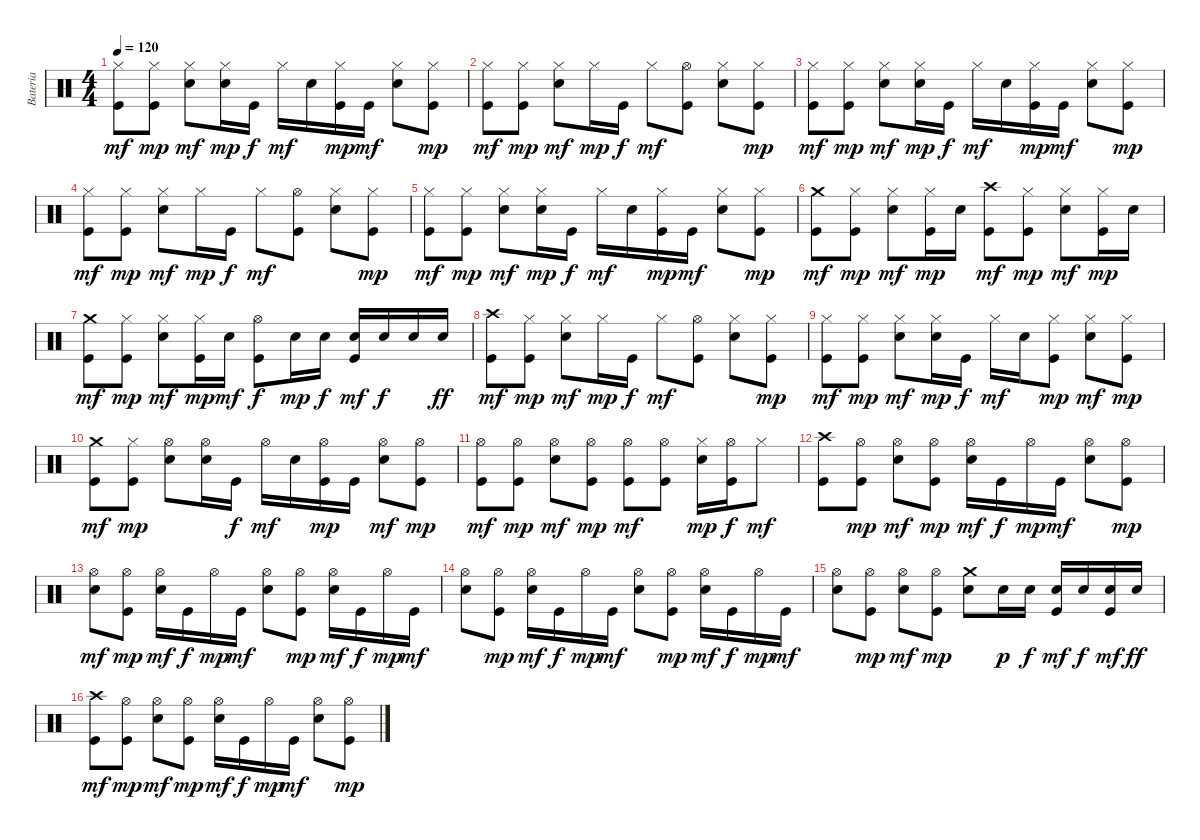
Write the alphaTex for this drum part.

\track ("Bateria" "Bateria") {instrument percussion}
\staff {score}
\articulation defaults
\ts (4 4)
\tempo 120
\clef neutral
\ks c
("Kick (hit)" "Hi-Hat (closed)").8{dy mf} ("Kick (hit)" "Hi-Hat (closed)").8{dy mp} ("Snare (hit) 2" "Hi-Hat (closed)").8{dy mf} ("Snare (hit) 2" "Hi-Hat (closed)").16{dy mp} "Kick (hit)".16{dy f} "Hi-Hat (closed)".16{dy mf} "Snare (hit) 2".16 ("Kick (hit)" "Hi-Hat (closed)").16{dy mp} "Kick (hit)".16{dy mf} ("Snare (hit) 2" "Hi-Hat (closed)").8 ("Kick (hit)" "Hi-Hat (closed)").8{dy mp} |
("Kick (hit)" "Hi-Hat (closed)").8{dy mf} ("Kick (hit)" "Hi-Hat (closed)").8{dy mp} ("Snare (hit) 2" "Hi-Hat (closed)").8{dy mf} "Hi-Hat (closed)".16{dy mp} "Kick (hit)".16{dy f} "Hi-Hat (closed)".8{dy mf} ("Kick (hit)" "Hi-Hat (open)").8 ("Snare (hit) 2" "Hi-Hat (closed)").8 ("Kick (hit)" "Hi-Hat (closed)").8{dy mp} |
("Kick (hit)" "Hi-Hat (closed)").8{dy mf} ("Kick (hit)" "Hi-Hat (closed)").8{dy mp} ("Snare (hit) 2" "Hi-Hat (closed)").8{dy mf} ("Snare (hit) 2" "Hi-Hat (closed)").16{dy mp} "Kick (hit)".16{dy f} "Hi-Hat (closed)".16{dy mf} "Snare (hit) 2".16 ("Kick (hit)" "Hi-Hat (closed)").16{dy mp} "Kick (hit)".16{dy mf} ("Snare (hit) 2" "Hi-Hat (closed)").8 ("Kick (hit)" "Hi-Hat (closed)").8{dy mp} |
("Kick (hit)" "Hi-Hat (closed)").8{dy mf} ("Kick (hit)" "Hi-Hat (closed)").8{dy mp} ("Snare (hit) 2" "Hi-Hat (closed)").8{dy mf} "Hi-Hat (closed)".16{dy mp} "Kick (hit)".16{dy f} "Hi-Hat (closed)".8{dy mf} ("Kick (hit)" "Hi-Hat (open)").8 ("Snare (hit) 2" "Hi-Hat (closed)").8 ("Kick (hit)" "Hi-Hat (closed)").8{dy mp} |
("Kick (hit)" "Hi-Hat (closed)").8{dy mf} ("Kick (hit)" "Hi-Hat (closed)").8{dy mp} ("Snare (hit) 2" "Hi-Hat (closed)").8{dy mf} ("Snare (hit) 2" "Hi-Hat (closed)").16{dy mp} "Kick (hit)".16{dy f} "Hi-Hat (closed)".16{dy mf} "Snare (hit) 2".16 ("Kick (hit)" "Hi-Hat (closed)").16{dy mp} "Kick (hit)".16{dy mf} ("Snare (hit) 2" "Hi-Hat (closed)").8 ("Kick (hit)" "Hi-Hat (closed)").8{dy mp} |
("Kick (hit)" "Crash medium (hit)").8{dy mf} ("Kick (hit)" "Hi-Hat (closed)").8{dy mp} ("Snare (hit) 2" "Hi-Hat (closed)").8{dy mf} ("Kick (hit)" "Hi-Hat (closed)").16{dy mp} "Snare (hit) 2".16 ("Kick (hit)" "Crash high (hit)").8{dy mf} ("Kick (hit)" "Hi-Hat (closed)").8{dy mp} ("Snare (hit) 2" "Hi-Hat (closed)").8{dy mf} ("Kick (hit)" "Hi-Hat (closed)").16{dy mp} "Snare (hit) 2".16 |
("Kick (hit)" "Crash medium (hit)").8{dy mf} ("Kick (hit)" "Hi-Hat (closed)").8{dy mp} ("Snare (hit) 2" "Hi-Hat (closed)").8{dy mf} ("Kick (hit)" "Hi-Hat (closed)").16{dy mp} "Snare (hit) 2".16{dy mf} ("Kick (hit)" "Hi-Hat (open)").8{dy f} "Snare (hit) 2".16{dy mp} "Snare (hit) 2".16{dy f} ("Kick (hit)" "Snare (hit) 2").16{dy mf} "Snare (hit) 2".16{dy f} "Snare (hit) 2".16 "Snare (hit) 2".16{dy ff} |
("Kick (hit)" "Crash high (hit)").8{dy mf} ("Kick (hit)" "Hi-Hat (closed)").8{dy mp} ("Snare (hit) 2" "Hi-Hat (closed)").8{dy mf} "Hi-Hat (closed)".16{dy mp} "Kick (hit)".16{dy f} "Hi-Hat (closed)".8{dy mf} ("Kick (hit)" "Hi-Hat (open)").8 ("Snare (hit) 2" "Hi-Hat (closed)").8 ("Kick (hit)" "Hi-Hat (closed)").8{dy mp} |
("Kick (hit)" "Hi-Hat (closed)").8{dy mf} ("Kick (hit)" "Hi-Hat (closed)").8{dy mp} ("Snare (hit) 2" "Hi-Hat (closed)").8{dy mf} ("Snare (hit) 2" "Hi-Hat (closed)").16{dy mp} "Kick (hit)".16{dy f} "Hi-Hat (closed)".16{dy mf} "Snare (hit) 2".16 ("Kick (hit)" "Hi-Hat (closed)").8{dy mp} ("Snare (hit) 2" "Hi-Hat (closed)").8{dy mf} ("Kick (hit)" "Hi-Hat (closed)").8{dy mp} |
("Kick (hit)" "Crash medium (hit)").8{dy mf} ("Kick (hit)" "Hi-Hat (closed)").8{dy mp} ("Snare (hit) 2" "Hi-Hat (open)").8 ("Snare (hit) 2" "Hi-Hat (open)").16 "Kick (hit)".16{dy f} "Hi-Hat (open)".16{dy mf} "Snare (hit) 2".16 ("Kick (hit)" "Hi-Hat (open)").16{dy mp} "Kick (hit)".16 ("Snare (hit) 2" "Hi-Hat (open)").8{dy mf} ("Kick (hit)" "Hi-Hat (open)").8{dy mp} |
("Kick (hit)" "Hi-Hat (open)").8{dy mf} ("Kick (hit)" "Hi-Hat (open)").8{dy mp} ("Snare (hit) 2" "Hi-Hat (open)").8{dy mf} ("Kick (hit)" "Hi-Hat (open)").8{dy mp} ("Kick (hit)" "Hi-Hat (open)").8{dy mf} ("Kick (hit)" "Hi-Hat (open)").8 ("Snare (hit) 2" "Hi-Hat (closed)").16{dy mp} ("Kick (hit)" "Hi-Hat (open)").16{dy f} "Hi-Hat (closed)".8{dy mf} |
("Kick (hit)" "Crash high (hit)").8 ("Kick (hit)" "Hi-Hat (open)").8{dy mp} ("Snare (hit) 2" "Hi-Hat (open)").8{dy mf} ("Kick (hit)" "Hi-Hat (open)").8{dy mp} ("Snare (hit) 2" "Hi-Hat (open)").16{dy mf} "Kick (hit)".16{dy f} "Hi-Hat (open)".16{dy mp} "Kick (hit)".16{dy mf} ("Snare (hit) 2" "Hi-Hat (open)").8 ("Kick (hit)" "Hi-Hat (open)").8{dy mp} |
("Snare (hit) 2" "Hi-Hat (open)").8{dy mf} ("Kick (hit)" "Hi-Hat (open)").8{dy mp} ("Snare (hit) 2" "Hi-Hat (open)").16{dy mf} "Kick (hit)".16{dy f} "Hi-Hat (open)".16{dy mp} "Kick (hit)".16{dy mf} ("Snare (hit) 2" "Hi-Hat (open)").8 ("Kick (hit)" "Hi-Hat (open)").8{dy mp} ("Snare (hit) 2" "Hi-Hat (open)").16{dy mf} "Kick (hit)".16{dy f} "Hi-Hat (open)".16{dy mp} "Kick (hit)".16{dy mf} |
("Snare (hit) 2" "Hi-Hat (open)").8 ("Kick (hit)" "Hi-Hat (open)").8{dy mp} ("Snare (hit) 2" "Hi-Hat (open)").16{dy mf} "Kick (hit)".16{dy f} "Hi-Hat (open)".16{dy mp} "Kick (hit)".16{dy mf} ("Snare (hit) 2" "Hi-Hat (open)").8 ("Kick (hit)" "Hi-Hat (open)").8{dy mp} ("Snare (hit) 2" "Hi-Hat (open)").16{dy mf} "Kick (hit)".16{dy f} "Hi-Hat (open)".16{dy mp} "Kick (hit)".16{dy mf} |
("Snare (hit) 2" "Hi-Hat (open)").8 ("Kick (hit)" "Hi-Hat (open)").8{dy mp} ("Snare (hit) 2" "Hi-Hat (open)").8{dy mf} ("Kick (hit)" "Hi-Hat (open)").8{dy mp} ("Snare (hit) 2" "Crash medium (hit)").8 "Snare (hit) 2".16{dy p} "Snare (hit) 2".16{dy f} ("Kick (hit)" "Snare (hit) 2").16{dy mf} "Snare (hit) 2".16{dy f} ("Kick (hit)" "Snare (hit) 2").16{dy mf} "Snare (hit) 2".16{dy ff} |
("Kick (hit)" "Crash high (hit)").8{dy mf} ("Kick (hit)" "Hi-Hat (open)").8{dy mp} ("Snare (hit) 2" "Hi-Hat (open)").8{dy mf} ("Kick (hit)" "Hi-Hat (open)").8{dy mp} ("Snare (hit) 2" "Hi-Hat (open)").16{dy mf} "Kick (hit)".16{dy f} "Hi-Hat (open)".16{dy mp} "Kick (hit)".16{dy mf} ("Snare (hit) 2" "Hi-Hat (open)").8 ("Kick (hit)" "Hi-Hat (open)").8{dy mp}
